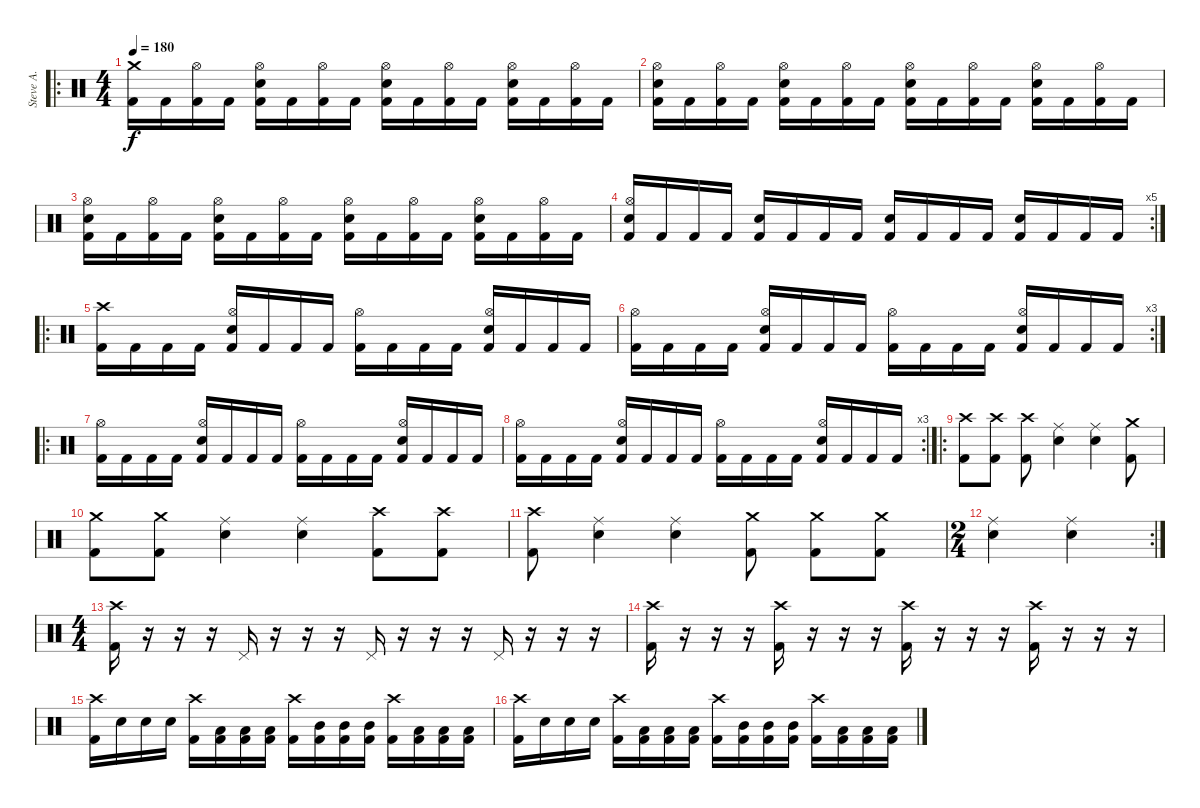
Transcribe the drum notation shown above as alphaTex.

\track ("Steve A." "Steve A.") {instrument percussion}
\staff {score}
\articulation defaults
\ro
\ts (4 4)
\tempo 180
\clef neutral
\ks c
("Kick (hit) 2" "Crash medium (hit)").16{dy f} "Kick (hit) 2".16 ("Kick (hit) 2" "Hi-Hat (open)").16 "Kick (hit) 2".16 ("Kick (hit) 2" "Hi-Hat (open)" "Electric Snare (hit)").16 "Kick (hit) 2".16 ("Kick (hit) 2" "Hi-Hat (open)").16 "Kick (hit) 2".16 ("Kick (hit) 2" "Hi-Hat (open)" "Electric Snare (hit)").16 "Kick (hit) 2".16 ("Kick (hit) 2" "Hi-Hat (open)").16 "Kick (hit) 2".16 ("Kick (hit) 2" "Hi-Hat (open)" "Electric Snare (hit)").16 "Kick (hit) 2".16 ("Kick (hit) 2" "Hi-Hat (open)").16 "Kick (hit) 2".16 |
("Kick (hit) 2" "Hi-Hat (open)" "Electric Snare (hit)").16 "Kick (hit) 2".16 ("Kick (hit) 2" "Hi-Hat (open)").16 "Kick (hit) 2".16 ("Kick (hit) 2" "Hi-Hat (open)" "Electric Snare (hit)").16 "Kick (hit) 2".16 ("Kick (hit) 2" "Hi-Hat (open)").16 "Kick (hit) 2".16 ("Kick (hit) 2" "Hi-Hat (open)" "Electric Snare (hit)").16 "Kick (hit) 2".16 ("Kick (hit) 2" "Hi-Hat (open)").16 "Kick (hit) 2".16 ("Kick (hit) 2" "Hi-Hat (open)" "Electric Snare (hit)").16 "Kick (hit) 2".16 ("Kick (hit) 2" "Hi-Hat (open)").16 "Kick (hit) 2".16 |
("Kick (hit) 2" "Hi-Hat (open)" "Electric Snare (hit)").16 "Kick (hit) 2".16 ("Kick (hit) 2" "Hi-Hat (open)").16 "Kick (hit) 2".16 ("Kick (hit) 2" "Hi-Hat (open)" "Electric Snare (hit)").16 "Kick (hit) 2".16 ("Kick (hit) 2" "Hi-Hat (open)").16 "Kick (hit) 2".16 ("Kick (hit) 2" "Hi-Hat (open)" "Electric Snare (hit)").16 "Kick (hit) 2".16 ("Kick (hit) 2" "Hi-Hat (open)").16 "Kick (hit) 2".16 ("Kick (hit) 2" "Hi-Hat (open)" "Electric Snare (hit)").16 "Kick (hit) 2".16 ("Kick (hit) 2" "Hi-Hat (open)").16 "Kick (hit) 2".16 |
\rc 5
("Kick (hit) 2" "Hi-Hat (open)" "Electric Snare (hit)").16 "Kick (hit) 2".16 "Kick (hit) 2".16 "Kick (hit) 2".16 ("Kick (hit) 2" "Electric Snare (hit)").16 "Kick (hit) 2".16 "Kick (hit) 2".16 "Kick (hit) 2".16 ("Kick (hit) 2" "Electric Snare (hit)").16 "Kick (hit) 2".16 "Kick (hit) 2".16 "Kick (hit) 2".16 ("Kick (hit) 2" "Electric Snare (hit)").16 "Kick (hit) 2".16 "Kick (hit) 2".16 "Kick (hit) 2".16 |
\ro
("Kick (hit) 2" "Crash high (hit)").16 "Kick (hit) 2".16 "Kick (hit) 2".16 "Kick (hit) 2".16 ("Kick (hit) 2" "Hi-Hat (open)" "Electric Snare (hit)").16 "Kick (hit) 2".16 "Kick (hit) 2".16 "Kick (hit) 2".16 ("Kick (hit) 2" "Hi-Hat (open)").16 "Kick (hit) 2".16 "Kick (hit) 2".16 "Kick (hit) 2".16 ("Kick (hit) 2" "Hi-Hat (open)" "Electric Snare (hit)").16 "Kick (hit) 2".16 "Kick (hit) 2".16 "Kick (hit) 2".16 |
\rc 3
("Kick (hit) 2" "Hi-Hat (open)").16 "Kick (hit) 2".16 "Kick (hit) 2".16 "Kick (hit) 2".16 ("Kick (hit) 2" "Hi-Hat (open)" "Electric Snare (hit)").16 "Kick (hit) 2".16 "Kick (hit) 2".16 "Kick (hit) 2".16 ("Kick (hit) 2" "Hi-Hat (open)").16 "Kick (hit) 2".16 "Kick (hit) 2".16 "Kick (hit) 2".16 ("Kick (hit) 2" "Hi-Hat (open)" "Electric Snare (hit)").16 "Kick (hit) 2".16 "Kick (hit) 2".16 "Kick (hit) 2".16 |
\ro
("Kick (hit) 2" "Hi-Hat (open)").16 "Kick (hit) 2".16 "Kick (hit) 2".16 "Kick (hit) 2".16 ("Kick (hit) 2" "Hi-Hat (open)" "Electric Snare (hit)").16 "Kick (hit) 2".16 "Kick (hit) 2".16 "Kick (hit) 2".16 ("Kick (hit) 2" "Hi-Hat (open)").16 "Kick (hit) 2".16 "Kick (hit) 2".16 "Kick (hit) 2".16 ("Kick (hit) 2" "Hi-Hat (open)" "Electric Snare (hit)").16 "Kick (hit) 2".16 "Kick (hit) 2".16 "Kick (hit) 2".16 |
\rc 3
("Kick (hit) 2" "Hi-Hat (open)").16 "Kick (hit) 2".16 "Kick (hit) 2".16 "Kick (hit) 2".16 ("Kick (hit) 2" "Hi-Hat (open)" "Electric Snare (hit)").16 "Kick (hit) 2".16 "Kick (hit) 2".16 "Kick (hit) 2".16 ("Kick (hit) 2" "Hi-Hat (open)").16 "Kick (hit) 2".16 "Kick (hit) 2".16 "Kick (hit) 2".16 ("Kick (hit) 2" "Hi-Hat (open)" "Electric Snare (hit)").16 "Kick (hit) 2".16 "Kick (hit) 2".16 "Kick (hit) 2".16 |
\ro
("Kick (hit) 2" "Crash high (hit)").8 ("Kick (hit) 2" "Crash high (hit)").8 ("Kick (hit) 2" "Crash high (hit)").8 ("Ride (middle)" "Electric Snare (hit)").4 ("Ride (middle)" "Electric Snare (hit)").4 ("Kick (hit) 2" "Crash medium (hit)").8 |
("Kick (hit) 2" "Crash medium (hit)").8 ("Kick (hit) 2" "Crash medium (hit)").8 ("Ride (middle)" "Electric Snare (hit)").4 ("Ride (middle)" "Electric Snare (hit)").4 ("Kick (hit) 2" "Crash high (hit)").8 ("Kick (hit) 2" "Crash high (hit)").8 |
("Kick (hit) 2" "Crash high (hit)").8 ("Ride (middle)" "Electric Snare (hit)").4 ("Ride (middle)" "Electric Snare (hit)").4 ("Kick (hit) 2" "Crash medium (hit)").8 ("Kick (hit) 2" "Crash medium (hit)").8 ("Kick (hit) 2" "Crash medium (hit)").8 |
\rc 2
\ts (2 4)
("Ride (middle)" "Electric Snare (hit)").4 ("Ride (middle)" "Electric Snare (hit)").4 |
\ts (4 4)
("Kick (hit) 2" "Crash high (hit)").16 r.16 r.16 r.16 "Pedal Hi-Hat (hit)".16 r.16 r.16 r.16 "Pedal Hi-Hat (hit)".16 r.16 r.16 r.16 "Pedal Hi-Hat (hit)".16 r.16 r.16 r.16 |
("Kick (hit) 2" "Crash high (hit)").16 r.16 r.16 r.16 ("Kick (hit) 2" "Crash high (hit)").16 r.16 r.16 r.16 ("Kick (hit) 2" "Crash high (hit)").16 r.16 r.16 r.16 ("Kick (hit) 2" "Crash high (hit)").16 r.16 r.16 r.16 |
("Kick (hit) 2" "Crash high (hit)").16 "Electric Snare (hit)".16 "Electric Snare (hit)".16 "Electric Snare (hit)".16 ("Kick (hit) 2" "Crash high (hit)").16 ("Kick (hit) 2" "Low Tom (hit)").16 ("Kick (hit) 2" "Low Tom (hit)").16 ("Kick (hit) 2" "Low Tom (hit)").16 ("Kick (hit) 2" "Crash high (hit)").16 ("Kick (hit) 2" "Mid Tom (hit)").16 ("Kick (hit) 2" "Mid Tom (hit)").16 ("Kick (hit) 2" "Mid Tom (hit)").16 ("Kick (hit) 2" "Crash high (hit)").16 ("Kick (hit) 2" "Low Tom (hit)").16 ("Kick (hit) 2" "Low Tom (hit)").16 ("Kick (hit) 2" "Low Tom (hit)").16 |
("Kick (hit) 2" "Crash high (hit)").16 "Electric Snare (hit)".16 "Electric Snare (hit)".16 "Electric Snare (hit)".16 ("Kick (hit) 2" "Crash high (hit)").16 ("Kick (hit) 2" "Low Tom (hit)").16 ("Kick (hit) 2" "Low Tom (hit)").16 ("Kick (hit) 2" "Low Tom (hit)").16 ("Kick (hit) 2" "Crash high (hit)").16 ("Kick (hit) 2" "Mid Tom (hit)").16 ("Kick (hit) 2" "Mid Tom (hit)").16 ("Kick (hit) 2" "Mid Tom (hit)").16 ("Kick (hit) 2" "Crash high (hit)").16 ("Kick (hit) 2" "Low Tom (hit)").16 ("Kick (hit) 2" "Low Tom (hit)").16 ("Kick (hit) 2" "Low Tom (hit)").16
